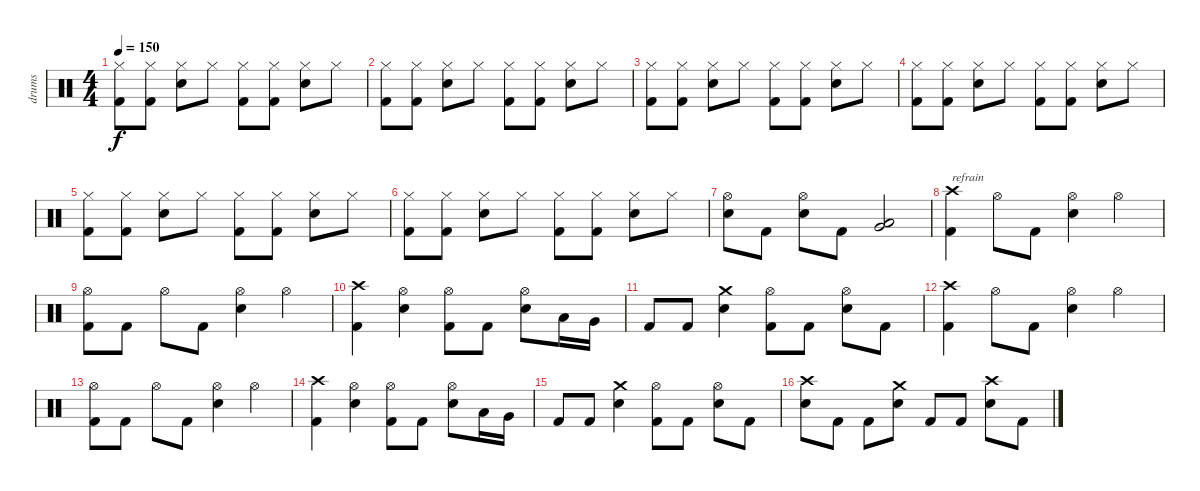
\track ("drums" "drums") {instrument percussion}
\staff {score}
\articulation defaults
\ts (4 4)
\tempo 150
\clef neutral
\ks c
("Hi-Hat (closed)" "Kick (hit) 2").8{dy f} ("Hi-Hat (closed)" "Kick (hit) 2").8 ("Hi-Hat (closed)" "Electric Snare (hit)").8 "Hi-Hat (closed)".8 ("Hi-Hat (closed)" "Kick (hit) 2").8 ("Hi-Hat (closed)" "Kick (hit) 2").8 ("Hi-Hat (closed)" "Electric Snare (hit)").8 "Hi-Hat (closed)".8 |
("Hi-Hat (closed)" "Kick (hit) 2").8 ("Hi-Hat (closed)" "Kick (hit) 2").8 ("Hi-Hat (closed)" "Electric Snare (hit)").8 "Hi-Hat (closed)".8 ("Hi-Hat (closed)" "Kick (hit) 2").8 ("Hi-Hat (closed)" "Kick (hit) 2").8 ("Hi-Hat (closed)" "Electric Snare (hit)").8 "Hi-Hat (closed)".8 |
("Hi-Hat (closed)" "Kick (hit) 2").8 ("Hi-Hat (closed)" "Kick (hit) 2").8 ("Hi-Hat (closed)" "Electric Snare (hit)").8 "Hi-Hat (closed)".8 ("Hi-Hat (closed)" "Kick (hit) 2").8 ("Hi-Hat (closed)" "Kick (hit) 2").8 ("Hi-Hat (closed)" "Electric Snare (hit)").8 "Hi-Hat (closed)".8 |
("Hi-Hat (closed)" "Kick (hit) 2").8 ("Hi-Hat (closed)" "Kick (hit) 2").8 ("Hi-Hat (closed)" "Electric Snare (hit)").8 "Hi-Hat (closed)".8 ("Hi-Hat (closed)" "Kick (hit) 2").8 ("Hi-Hat (closed)" "Kick (hit) 2").8 ("Hi-Hat (closed)" "Electric Snare (hit)").8 "Hi-Hat (closed)".8 |
("Hi-Hat (closed)" "Kick (hit) 2").8 ("Hi-Hat (closed)" "Kick (hit) 2").8 ("Hi-Hat (closed)" "Electric Snare (hit)").8 "Hi-Hat (closed)".8 ("Hi-Hat (closed)" "Kick (hit) 2").8 ("Hi-Hat (closed)" "Kick (hit) 2").8 ("Hi-Hat (closed)" "Electric Snare (hit)").8 "Hi-Hat (closed)".8 |
("Hi-Hat (closed)" "Kick (hit) 2").8 ("Hi-Hat (closed)" "Kick (hit) 2").8 ("Hi-Hat (closed)" "Electric Snare (hit)").8 "Hi-Hat (closed)".8 ("Hi-Hat (closed)" "Kick (hit) 2").8 ("Hi-Hat (closed)" "Kick (hit) 2").8 ("Hi-Hat (closed)" "Electric Snare (hit)").8 "Hi-Hat (closed)".8 |
("Hi-Hat (open)" "Electric Snare (hit)").8 "Kick (hit) 2".8 ("Hi-Hat (open)" "Electric Snare (hit)").8 "Kick (hit) 2".8 ("Low Floor Tom (hit)" "Very Low Tom (hit)").2 |
("Crash high (hit)" "Kick (hit) 2").4{txt "refrain"} "Hi-Hat (open)".8 "Kick (hit) 2".8 ("Hi-Hat (open)" "Electric Snare (hit)").4 "Hi-Hat (open)".4 |
("Hi-Hat (open)" "Kick (hit) 2").8 "Kick (hit) 2".8 "Hi-Hat (open)".8 "Kick (hit) 2".8 ("Hi-Hat (open)" "Electric Snare (hit)").4 "Hi-Hat (open)".4 |
("Crash high (hit)" "Kick (hit) 2").4 ("Hi-Hat (open)" "Electric Snare (hit)").4 ("Hi-Hat (open)" "Kick (hit) 2").8 "Kick (hit) 2".8 ("Hi-Hat (open)" "Electric Snare (hit)").8 "Low Tom (hit)".16 "Very Low Tom (hit)".16 |
"Kick (hit) 2".8 "Kick (hit) 2".8 ("Crash medium (hit)" "Electric Snare (hit)").4 ("Hi-Hat (open)" "Kick (hit) 2").8 "Kick (hit) 2".8 ("Hi-Hat (open)" "Electric Snare (hit)").8 "Kick (hit) 2".8 |
("Crash high (hit)" "Kick (hit) 2").4 "Hi-Hat (open)".8 "Kick (hit) 2".8 ("Hi-Hat (open)" "Electric Snare (hit)").4 "Hi-Hat (open)".4 |
("Hi-Hat (open)" "Kick (hit) 2").8 "Kick (hit) 2".8 "Hi-Hat (open)".8 "Kick (hit) 2".8 ("Hi-Hat (open)" "Electric Snare (hit)").4 "Hi-Hat (open)".4 |
("Crash high (hit)" "Kick (hit) 2").4 ("Hi-Hat (open)" "Electric Snare (hit)").4 ("Hi-Hat (open)" "Kick (hit) 2").8 "Kick (hit) 2".8 ("Hi-Hat (open)" "Electric Snare (hit)").8 "Low Tom (hit)".16 "Very Low Tom (hit)".16 |
"Kick (hit) 2".8 "Kick (hit) 2".8 ("Crash medium (hit)" "Electric Snare (hit)").4 ("Hi-Hat (open)" "Kick (hit) 2").8 "Kick (hit) 2".8 ("Hi-Hat (open)" "Electric Snare (hit)").8 "Kick (hit) 2".8 |
("Crash high (hit)" "Electric Snare (hit)").8 "Kick (hit) 2".8 "Kick (hit) 2".8 ("Crash medium (hit)" "Electric Snare (hit)").8 "Kick (hit) 2".8 "Kick (hit) 2".8 ("Crash high (hit)" "Electric Snare (hit)").8 "Kick (hit) 2".8
